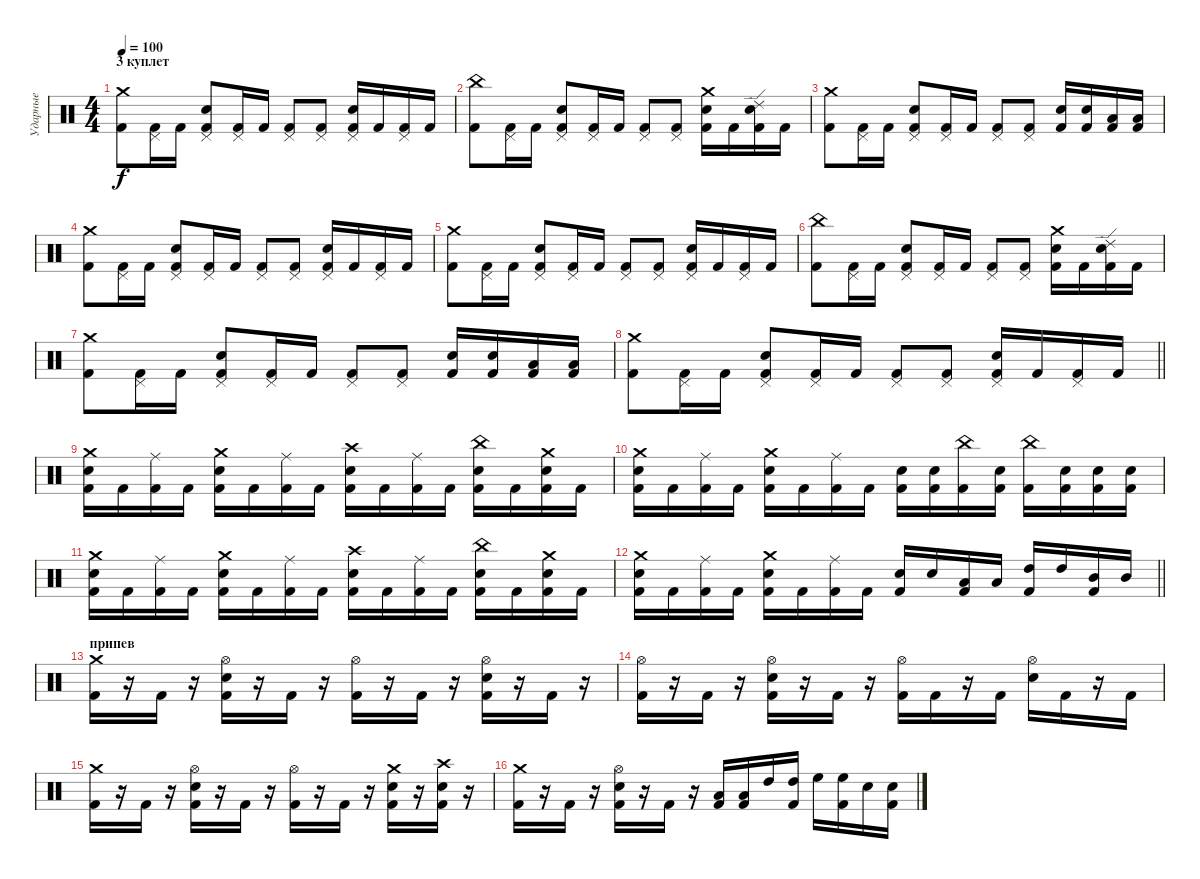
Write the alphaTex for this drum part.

\track ("Ударные" "Ударные") {instrument percussion}
\staff {score}
\articulation defaults
\ts (4 4)
\section ("" "3 куплет")
\tempo 100
\clef neutral
\ks c
("Crash medium (hit)" "Kick (hit) 2").8{dy f} ("Pedal Hi-Hat (hit)" "Kick (hit) 2").16 "Kick (hit) 2".16 ("Snare (hit) 2" "Pedal Hi-Hat (hit)" "Kick (hit) 2").8 ("Pedal Hi-Hat (hit)" "Kick (hit) 2").16 "Kick (hit) 2".16 ("Pedal Hi-Hat (hit)" "Kick (hit) 2").8 ("Pedal Hi-Hat (hit)" "Kick (hit) 2").8 ("Snare (hit) 2" "Pedal Hi-Hat (hit)" "Kick (hit) 2").16 "Kick (hit) 2".16 ("Pedal Hi-Hat (hit)" "Kick (hit) 2").16 "Kick (hit) 2".16 |
("China (hit)" "Kick (hit) 2").8 ("Pedal Hi-Hat (hit)" "Kick (hit) 2").16 "Kick (hit) 2".16 ("Snare (hit) 2" "Pedal Hi-Hat (hit)" "Kick (hit) 2").8 ("Pedal Hi-Hat (hit)" "Kick (hit) 2").16 "Kick (hit) 2".16 ("Pedal Hi-Hat (hit)" "Kick (hit) 2").8 ("Pedal Hi-Hat (hit)" "Kick (hit) 2").8 ("Snare (hit) 2" "Crash medium (hit)" "Kick (hit) 2").16 "Kick (hit) 2".16 ("Snare (hit) 2" "Ride (edge) 2" "Kick (hit) 2").16 "Kick (hit) 2".16 |
("Crash medium (hit)" "Kick (hit) 2").8 ("Pedal Hi-Hat (hit)" "Kick (hit) 2").16 "Kick (hit) 2".16 ("Snare (hit) 2" "Pedal Hi-Hat (hit)" "Kick (hit) 2").8 ("Pedal Hi-Hat (hit)" "Kick (hit) 2").16 "Kick (hit) 2".16 ("Pedal Hi-Hat (hit)" "Kick (hit) 2").8 ("Pedal Hi-Hat (hit)" "Kick (hit) 2").8 ("Snare (hit) 2" "Kick (hit) 2").16 ("Snare (hit) 2" "Kick (hit) 2").16 ("Low Tom (hit)" "Kick (hit) 2").16 ("Low Tom (hit)" "Kick (hit) 2").16 |
("Crash medium (hit)" "Kick (hit) 2").8 ("Pedal Hi-Hat (hit)" "Kick (hit) 2").16 "Kick (hit) 2".16 ("Snare (hit) 2" "Pedal Hi-Hat (hit)" "Kick (hit) 2").8 ("Pedal Hi-Hat (hit)" "Kick (hit) 2").16 "Kick (hit) 2".16 ("Pedal Hi-Hat (hit)" "Kick (hit) 2").8 ("Pedal Hi-Hat (hit)" "Kick (hit) 2").8 ("Snare (hit) 2" "Pedal Hi-Hat (hit)" "Kick (hit) 2").16 "Kick (hit) 2".16 ("Pedal Hi-Hat (hit)" "Kick (hit) 2").16 "Kick (hit) 2".16 |
("Crash medium (hit)" "Kick (hit) 2").8 ("Pedal Hi-Hat (hit)" "Kick (hit) 2").16 "Kick (hit) 2".16 ("Snare (hit) 2" "Pedal Hi-Hat (hit)" "Kick (hit) 2").8 ("Pedal Hi-Hat (hit)" "Kick (hit) 2").16 "Kick (hit) 2".16 ("Pedal Hi-Hat (hit)" "Kick (hit) 2").8 ("Pedal Hi-Hat (hit)" "Kick (hit) 2").8 ("Snare (hit) 2" "Pedal Hi-Hat (hit)" "Kick (hit) 2").16 "Kick (hit) 2".16 ("Pedal Hi-Hat (hit)" "Kick (hit) 2").16 "Kick (hit) 2".16 |
("China (hit)" "Kick (hit) 2").8 ("Pedal Hi-Hat (hit)" "Kick (hit) 2").16 "Kick (hit) 2".16 ("Snare (hit) 2" "Pedal Hi-Hat (hit)" "Kick (hit) 2").8 ("Pedal Hi-Hat (hit)" "Kick (hit) 2").16 "Kick (hit) 2".16 ("Pedal Hi-Hat (hit)" "Kick (hit) 2").8 ("Pedal Hi-Hat (hit)" "Kick (hit) 2").8 ("Snare (hit) 2" "Crash medium (hit)" "Kick (hit) 2").16 "Kick (hit) 2".16 ("Snare (hit) 2" "Ride (edge) 2" "Kick (hit) 2").16 "Kick (hit) 2".16 |
("Crash medium (hit)" "Kick (hit) 2").8 ("Pedal Hi-Hat (hit)" "Kick (hit) 2").16 "Kick (hit) 2".16 ("Snare (hit) 2" "Pedal Hi-Hat (hit)" "Kick (hit) 2").8 ("Pedal Hi-Hat (hit)" "Kick (hit) 2").16 "Kick (hit) 2".16 ("Pedal Hi-Hat (hit)" "Kick (hit) 2").8 ("Pedal Hi-Hat (hit)" "Kick (hit) 2").8 ("Snare (hit) 2" "Kick (hit) 2").16 ("Snare (hit) 2" "Kick (hit) 2").16 ("Low Tom (hit)" "Kick (hit) 2").16 ("Low Tom (hit)" "Kick (hit) 2").16 |
\barLineRight lightlight
("Crash medium (hit)" "Kick (hit) 2").8 ("Pedal Hi-Hat (hit)" "Kick (hit) 2").16 "Kick (hit) 2".16 ("Snare (hit) 2" "Pedal Hi-Hat (hit)" "Kick (hit) 2").8 ("Pedal Hi-Hat (hit)" "Kick (hit) 2").16 "Kick (hit) 2".16 ("Pedal Hi-Hat (hit)" "Kick (hit) 2").8 ("Pedal Hi-Hat (hit)" "Kick (hit) 2").8 ("Snare (hit) 2" "Pedal Hi-Hat (hit)" "Kick (hit) 2").16 "Kick (hit) 2".16 ("Pedal Hi-Hat (hit)" "Kick (hit) 2").16 "Kick (hit) 2".16 |
("Snare (hit) 2" "Crash medium (hit)" "Kick (hit) 2").16 "Kick (hit) 2".16 ("Ride (middle)" "Kick (hit) 2").16 "Kick (hit) 2".16 ("Snare (hit) 2" "Crash medium (hit)" "Kick (hit) 2").16 "Kick (hit) 2".16 ("Ride (middle)" "Kick (hit) 2").16 "Kick (hit) 2".16 ("Snare (hit) 2" "Crash high (hit)" "Kick (hit) 2").16 "Kick (hit) 2".16 ("Ride (middle)" "Kick (hit) 2").16 "Kick (hit) 2".16 ("Snare (hit) 2" "China (hit)" "Kick (hit) 2").16 "Kick (hit) 2".16 ("Snare (hit) 2" "Crash medium (hit)" "Kick (hit) 2").16 "Kick (hit) 2".16 |
("Snare (hit) 2" "Crash medium (hit)" "Kick (hit) 2").16 "Kick (hit) 2".16 ("Ride (middle)" "Kick (hit) 2").16 "Kick (hit) 2".16 ("Snare (hit) 2" "Crash medium (hit)" "Kick (hit) 2").16 "Kick (hit) 2".16 ("Ride (middle)" "Kick (hit) 2").16 "Kick (hit) 2".16 ("Snare (hit) 2" "Kick (hit) 2").16 ("Snare (hit) 2" "Kick (hit) 2").16 ("China (hit)" "Kick (hit) 2").16 ("Snare (hit) 2" "Kick (hit) 2").16 ("China (hit)" "Kick (hit) 2").16 ("Snare (hit) 2" "Kick (hit) 2").16 ("Snare (hit) 2" "Kick (hit) 2").16 ("Snare (hit) 2" "Kick (hit) 2").16 |
("Snare (hit) 2" "Crash medium (hit)" "Kick (hit) 2").16 "Kick (hit) 2".16 ("Ride (middle)" "Kick (hit) 2").16 "Kick (hit) 2".16 ("Snare (hit) 2" "Crash medium (hit)" "Kick (hit) 2").16 "Kick (hit) 2".16 ("Ride (middle)" "Kick (hit) 2").16 "Kick (hit) 2".16 ("Snare (hit) 2" "Crash high (hit)" "Kick (hit) 2").16 "Kick (hit) 2".16 ("Ride (middle)" "Kick (hit) 2").16 "Kick (hit) 2".16 ("Snare (hit) 2" "China (hit)" "Kick (hit) 2").16 "Kick (hit) 2".16 ("Snare (hit) 2" "Crash medium (hit)" "Kick (hit) 2").16 "Kick (hit) 2".16 |
\barLineRight lightlight
("Snare (hit) 2" "Crash medium (hit)" "Kick (hit) 2").16 "Kick (hit) 2".16 ("Ride (middle)" "Kick (hit) 2").16 "Kick (hit) 2".16 ("Snare (hit) 2" "Crash medium (hit)" "Kick (hit) 2").16 "Kick (hit) 2".16 ("Ride (middle)" "Kick (hit) 2").16 "Kick (hit) 2".16 ("Snare (hit) 2" "Kick (hit) 2").16 "Snare (hit) 2".16 ("Low Tom (hit)" "Kick (hit) 2").16 "Low Tom (hit)".16 ("High Tom (hit)" "Kick (hit) 2").16 "High Tom (hit)".16 ("Mid Tom (hit)" "Kick (hit) 2").16 "Mid Tom (hit)".16 |
\section ("" "припев")
("Crash medium (hit)" "Kick (hit) 2").16 r.16 "Kick (hit) 2".16 r.16 ("Hi-Hat (open)" "Snare (hit) 2" "Kick (hit) 2").16 r.16 "Kick (hit) 2".16 r.16 ("Hi-Hat (open)" "Kick (hit) 2").16 r.16 "Kick (hit) 2".16 r.16 ("Hi-Hat (open)" "Snare (hit) 2" "Kick (hit) 2").16 r.16 "Kick (hit) 2".16 r.16 |
("Hi-Hat (open)" "Kick (hit) 2").16 r.16 "Kick (hit) 2".16 r.16 ("Hi-Hat (open)" "Snare (hit) 2" "Kick (hit) 2").16 r.16 "Kick (hit) 2".16 r.16 ("Hi-Hat (open)" "Kick (hit) 2").16 "Kick (hit) 2".16 r.16 "Kick (hit) 2".16 ("Hi-Hat (open)" "Snare (hit) 2").16 "Kick (hit) 2".16 r.16 "Kick (hit) 2".16 |
("Crash medium (hit)" "Kick (hit) 2").16 r.16 "Kick (hit) 2".16 r.16 ("Hi-Hat (open)" "Snare (hit) 2" "Kick (hit) 2").16 r.16 "Kick (hit) 2".16 r.16 ("Hi-Hat (open)" "Kick (hit) 2").16 r.16 "Kick (hit) 2".16 r.16 ("Crash medium (hit)" "Snare (hit) 2" "Kick (hit) 2").16 r.16 ("Crash high (hit)" "Snare (hit) 2" "Kick (hit) 2").16 r.16 |
("Crash medium (hit)" "Kick (hit) 2").16 r.16 "Kick (hit) 2".16 r.16 ("Hi-Hat (open)" "Snare (hit) 2" "Kick (hit) 2").16 r.16 "Kick (hit) 2".16 r.16 ("Low Tom (hit)" "Kick (hit) 2").16 ("Low Tom (hit)" "Kick (hit) 2").16 "High Tom (hit)".16 ("High Tom (hit)" "Kick (hit) 2").16 "High Floor Tom (hit)".16 ("High Floor Tom (hit)" "Kick (hit) 2").16 "Snare (hit) 2".16 ("Snare (hit) 2" "Kick (hit) 2").16
